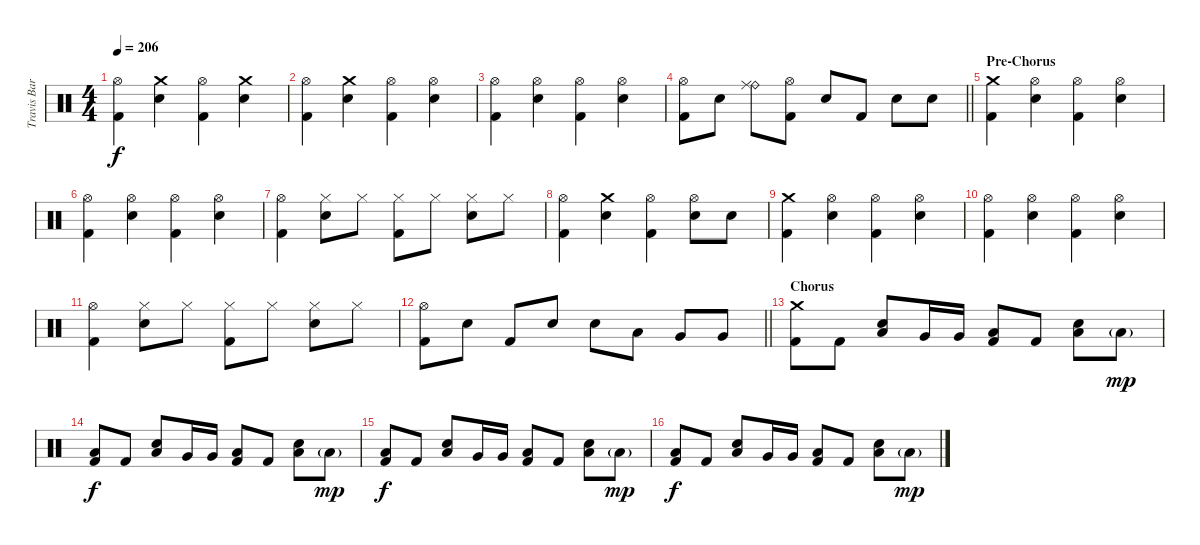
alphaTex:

\track ("Travis Barker - Drums" "Travis Bar") {instrument percussion}
\staff {score}
\articulation defaults
\ts (4 4)
\tempo 206
\clef neutral
\ks c
("Hi-Hat (open)" "Kick (hit) 2").4{dy f} ("Crash medium (hit)" "Electric Snare (hit)").4 ("Hi-Hat (open)" "Kick (hit) 2").4 ("Crash medium (hit)" "Electric Snare (hit)").4 |
("Hi-Hat (open)" "Kick (hit) 2").4 ("Crash medium (hit)" "Electric Snare (hit)").4 ("Hi-Hat (open)" "Kick (hit) 2").4 ("Hi-Hat (open)" "Electric Snare (hit)").4 |
("Hi-Hat (open)" "Kick (hit) 2").4 ("Hi-Hat (open)" "Electric Snare (hit)").4 ("Hi-Hat (open)" "Kick (hit) 2").4 ("Hi-Hat (open)" "Electric Snare (hit)").4 |
\barLineRight lightlight
("Hi-Hat (open)" "Kick (hit) 2").8 "Electric Snare (hit)".8 ("Ride (bell)" "Ride (middle)").8 ("Hi-Hat (open)" "Kick (hit) 2").8 "Electric Snare (hit)".8 "Kick (hit) 2".8 "Electric Snare (hit)".8 "Electric Snare (hit)".8 |
\section ("" "Pre-Chorus")
("Crash medium (hit)" "Kick (hit) 2").4 ("Hi-Hat (open)" "Electric Snare (hit)").4 ("Hi-Hat (open)" "Kick (hit) 2").4 ("Hi-Hat (open)" "Electric Snare (hit)").4 |
("Hi-Hat (open)" "Kick (hit) 2").4 ("Hi-Hat (open)" "Electric Snare (hit)").4 ("Hi-Hat (open)" "Kick (hit) 2").4 ("Hi-Hat (open)" "Electric Snare (hit)").4 |
("Hi-Hat (open)" "Kick (hit) 2").4 ("Hi-Hat (closed)" "Electric Snare (hit)").8 "Hi-Hat (closed)".8 ("Hi-Hat (closed)" "Kick (hit) 2").8 "Hi-Hat (closed)".8 ("Hi-Hat (closed)" "Electric Snare (hit)").8 "Hi-Hat (closed)".8 |
("Hi-Hat (open)" "Kick (hit) 2").4 ("Crash medium (hit)" "Electric Snare (hit)").4 ("Hi-Hat (open)" "Kick (hit) 2").4 ("Hi-Hat (open)" "Electric Snare (hit)").8 "Electric Snare (hit)".8 |
("Crash medium (hit)" "Kick (hit) 2").4 ("Hi-Hat (open)" "Electric Snare (hit)").4 ("Hi-Hat (open)" "Kick (hit) 2").4 ("Hi-Hat (open)" "Electric Snare (hit)").4 |
("Hi-Hat (open)" "Kick (hit) 2").4 ("Hi-Hat (open)" "Electric Snare (hit)").4 ("Hi-Hat (open)" "Kick (hit) 2").4 ("Hi-Hat (open)" "Electric Snare (hit)").4 |
("Hi-Hat (open)" "Kick (hit) 2").4 ("Hi-Hat (closed)" "Electric Snare (hit)").8 "Hi-Hat (closed)".8 ("Hi-Hat (closed)" "Kick (hit) 2").8 "Hi-Hat (closed)".8 ("Hi-Hat (closed)" "Electric Snare (hit)").8 "Hi-Hat (closed)".8 |
\barLineRight lightlight
("Hi-Hat (open)" "Kick (hit) 2").8 "Electric Snare (hit)".8 "Kick (hit) 2".8 "Electric Snare (hit)".8 "Electric Snare (hit)".8 "Low Tom (hit)".8 "Very Low Tom (hit)".8 "Very Low Tom (hit)".8 |
\section ("" "Chorus")
("Crash medium (hit)" "Kick (hit) 2").8 "Kick (hit) 2".8 ("Low Floor Tom (hit)" "Electric Snare (hit)").8 "Very Low Tom (hit)".16 "Very Low Tom (hit)".16 ("Low Floor Tom (hit)" "Kick (hit) 2").8 "Kick (hit) 2".8 ("Low Floor Tom (hit)" "Electric Snare (hit)").8 "Low Floor Tom (hit)"{g}.8{dy mp} |
("Low Floor Tom (hit)" "Kick (hit) 2").8{dy f} "Kick (hit) 2".8 ("Low Floor Tom (hit)" "Electric Snare (hit)").8 "Very Low Tom (hit)".16 "Very Low Tom (hit)".16 ("Low Floor Tom (hit)" "Kick (hit) 2").8 "Kick (hit) 2".8 ("Low Floor Tom (hit)" "Electric Snare (hit)").8 "Low Floor Tom (hit)"{g}.8{dy mp} |
("Low Floor Tom (hit)" "Kick (hit) 2").8{dy f} "Kick (hit) 2".8 ("Low Floor Tom (hit)" "Electric Snare (hit)").8 "Very Low Tom (hit)".16 "Very Low Tom (hit)".16 ("Low Floor Tom (hit)" "Kick (hit) 2").8 "Kick (hit) 2".8 ("Low Floor Tom (hit)" "Electric Snare (hit)").8 "Low Floor Tom (hit)"{g}.8{dy mp} |
("Low Floor Tom (hit)" "Kick (hit) 2").8{dy f} "Kick (hit) 2".8 ("Low Floor Tom (hit)" "Electric Snare (hit)").8 "Very Low Tom (hit)".16 "Very Low Tom (hit)".16 ("Low Floor Tom (hit)" "Kick (hit) 2").8 "Kick (hit) 2".8 ("Low Floor Tom (hit)" "Electric Snare (hit)").8 "Low Floor Tom (hit)"{g}.8{dy mp}
